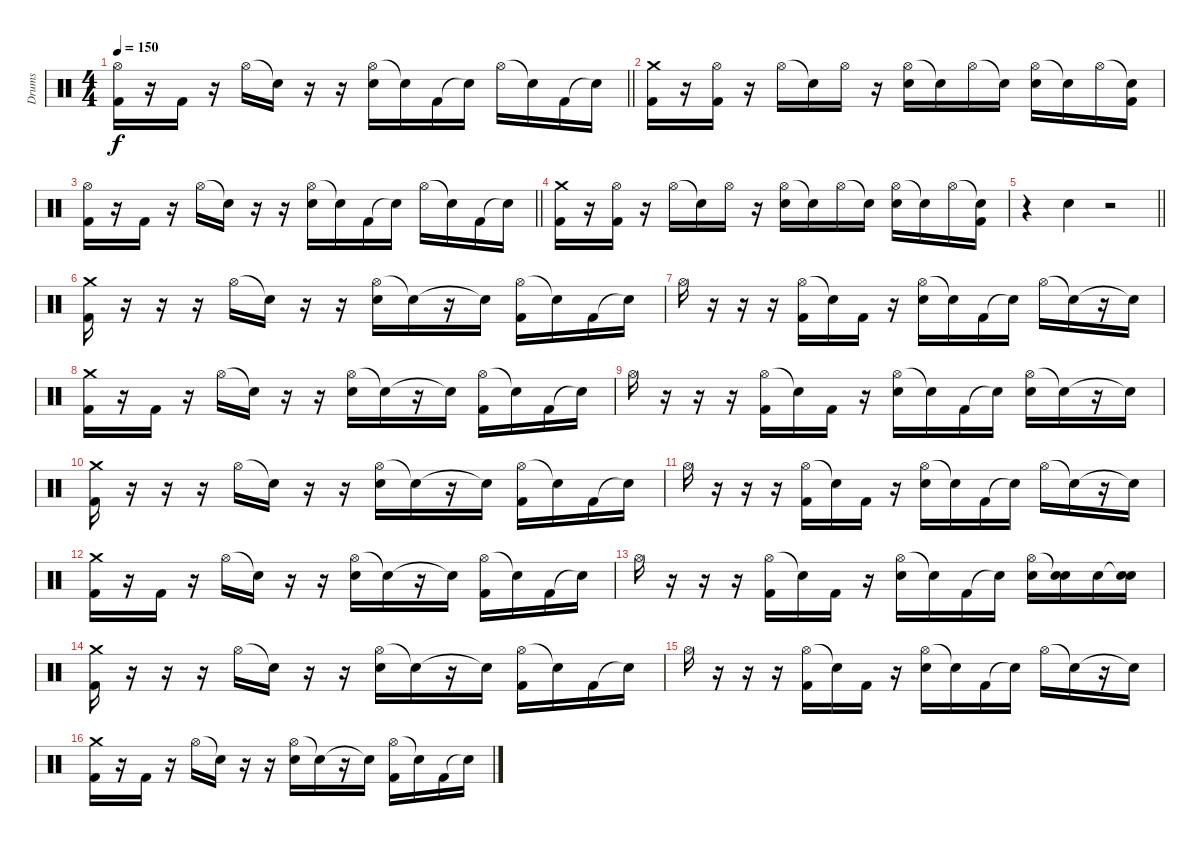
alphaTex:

\track ("Drums" "Drums") {instrument percussion}
\staff {score}
\articulation defaults
\ts (4 4)
\tempo 150
\clef neutral
\barLineRight lightlight
\ks c
("Hi-Hat (open)" "Kick (hit) 2").16{dy f} r.16 "Kick (hit) 2".16 r.16 "Hi-Hat (open)".16 "Snare (hit)"{t}.16 r.16 r.16 ("Hi-Hat (open)" "Snare (hit) 2").16 "Snare (hit)"{t}.16 "Kick (hit) 2".16 "Snare (hit)"{t}.16 "Hi-Hat (open)".16 "Snare (hit)"{t}.16 "Kick (hit) 2".16 "Snare (hit)"{t}.16 |
("Crash medium (hit)" "Kick (hit) 2").16 r.16 ("Hi-Hat (open)" "Kick (hit) 2").16 r.16 "Hi-Hat (open)".16 "Snare (hit)"{t}.16 "Hi-Hat (open)".16 r.16 ("Hi-Hat (open)" "Snare (hit) 2").16 "Snare (hit)"{t}.16 "Hi-Hat (open)".16 "Snare (hit)"{t}.16 ("Hi-Hat (open)" "Snare (hit) 2").16 "Snare (hit)"{t}.16 "Hi-Hat (open)".16 ("Snare (hit)"{t} "Kick (hit) 2").16 |
\barLineRight lightlight
("Hi-Hat (open)" "Kick (hit) 2").16 r.16 "Kick (hit) 2".16 r.16 "Hi-Hat (open)".16 "Snare (hit)"{t}.16 r.16 r.16 ("Hi-Hat (open)" "Snare (hit) 2").16 "Snare (hit)"{t}.16 "Kick (hit) 2".16 "Snare (hit)"{t}.16 "Hi-Hat (open)".16 "Snare (hit)"{t}.16 "Kick (hit) 2".16 "Snare (hit)"{t}.16 |
("Crash medium (hit)" "Kick (hit) 2").16 r.16 ("Hi-Hat (open)" "Kick (hit) 2").16 r.16 "Hi-Hat (open)".16 "Snare (hit)"{t}.16 "Hi-Hat (open)".16 r.16 ("Hi-Hat (open)" "Snare (hit) 2").16 "Snare (hit)"{t}.16 "Hi-Hat (open)".16 "Snare (hit)"{t}.16 ("Hi-Hat (open)" "Snare (hit) 2").16 "Snare (hit)"{t}.16 "Hi-Hat (open)".16 ("Snare (hit)"{t} "Kick (hit) 2").16 |
\barLineRight lightlight
r.4 "Snare (hit) 2".4 r.2 |
("Crash medium (hit)" "Kick (hit) 2").16 r.16 r.16 r.16 "Hi-Hat (open)".16 "Snare (hit)"{t}.16 r.16 r.16 ("Hi-Hat (open)" "Snare (hit) 2").16 "Snare (hit)"{t}.16 r.16 "Snare (hit)"{t}.16 ("Hi-Hat (open)" "Kick (hit) 2").16 "Snare (hit)"{t}.16 "Kick (hit) 2".16 "Snare (hit)"{t}.16 |
"Hi-Hat (open)".16 r.16 r.16 r.16 ("Hi-Hat (open)" "Kick (hit) 2").16 "Snare (hit)"{t}.16 "Kick (hit) 2".16 r.16 ("Hi-Hat (open)" "Snare (hit) 2").16 "Snare (hit)"{t}.16 "Kick (hit) 2".16 "Snare (hit)"{t}.16 "Hi-Hat (open)".16 "Snare (hit)"{t}.16 r.16 "Snare (hit)"{t}.16 |
("Crash medium (hit)" "Kick (hit) 2").16 r.16 "Kick (hit) 2".16 r.16 "Hi-Hat (open)".16 "Snare (hit)"{t}.16 r.16 r.16 ("Hi-Hat (open)" "Snare (hit) 2").16 "Snare (hit)"{t}.16 r.16 "Snare (hit)"{t}.16 ("Hi-Hat (open)" "Kick (hit) 2").16 "Snare (hit)"{t}.16 "Kick (hit) 2".16 "Snare (hit)"{t}.16 |
"Hi-Hat (open)".16 r.16 r.16 r.16 ("Hi-Hat (open)" "Kick (hit) 2").16 "Snare (hit)"{t}.16 "Kick (hit) 2".16 r.16 ("Hi-Hat (open)" "Snare (hit) 2").16 "Snare (hit)"{t}.16 "Kick (hit) 2".16 "Snare (hit)"{t}.16 ("Hi-Hat (open)" "Snare (hit) 2").16 "Snare (hit)"{t}.16 r.16 "Snare (hit)"{t}.16 |
("Crash medium (hit)" "Kick (hit) 2").16 r.16 r.16 r.16 "Hi-Hat (open)".16 "Snare (hit)"{t}.16 r.16 r.16 ("Hi-Hat (open)" "Snare (hit) 2").16 "Snare (hit)"{t}.16 r.16 "Snare (hit)"{t}.16 ("Hi-Hat (open)" "Kick (hit) 2").16 "Snare (hit)"{t}.16 "Kick (hit) 2".16 "Snare (hit)"{t}.16 |
"Hi-Hat (open)".16 r.16 r.16 r.16 ("Hi-Hat (open)" "Kick (hit) 2").16 "Snare (hit)"{t}.16 "Kick (hit) 2".16 r.16 ("Hi-Hat (open)" "Snare (hit) 2").16 "Snare (hit)"{t}.16 "Kick (hit) 2".16 "Snare (hit)"{t}.16 "Hi-Hat (open)".16 "Snare (hit)"{t}.16 r.16 "Snare (hit)"{t}.16 |
("Crash medium (hit)" "Kick (hit) 2").16 r.16 "Kick (hit) 2".16 r.16 "Hi-Hat (open)".16 "Snare (hit)"{t}.16 r.16 r.16 ("Hi-Hat (open)" "Snare (hit) 2").16 "Snare (hit)"{t}.16 r.16 "Snare (hit)"{t}.16 ("Hi-Hat (open)" "Kick (hit) 2").16 "Snare (hit)"{t}.16 "Kick (hit) 2".16 "Snare (hit)"{t}.16 |
"Hi-Hat (open)".16 r.16 r.16 r.16 ("Hi-Hat (open)" "Kick (hit) 2").16 "Snare (hit)"{t}.16 "Kick (hit) 2".16 r.16 ("Hi-Hat (open)" "Snare (hit) 2").16 "Snare (hit)"{t}.16 "Kick (hit) 2".16 "Snare (hit)"{t}.16 ("Hi-Hat (open)" "Snare (hit) 2").16 ("Snare (hit)"{t} "Snare (hit) 2").16 "Snare (hit) 2".16 ("Snare (hit)"{t} "Snare (hit) 2").16 |
("Crash medium (hit)" "Kick (hit) 2").16 r.16 r.16 r.16 "Hi-Hat (open)".16 "Snare (hit)"{t}.16 r.16 r.16 ("Hi-Hat (open)" "Snare (hit) 2").16 "Snare (hit)"{t}.16 r.16 "Snare (hit)"{t}.16 ("Hi-Hat (open)" "Kick (hit) 2").16 "Snare (hit)"{t}.16 "Kick (hit) 2".16 "Snare (hit)"{t}.16 |
"Hi-Hat (open)".16 r.16 r.16 r.16 ("Hi-Hat (open)" "Kick (hit) 2").16 "Snare (hit)"{t}.16 "Kick (hit) 2".16 r.16 ("Hi-Hat (open)" "Snare (hit) 2").16 "Snare (hit)"{t}.16 "Kick (hit) 2".16 "Snare (hit)"{t}.16 "Hi-Hat (open)".16 "Snare (hit)"{t}.16 r.16 "Snare (hit)"{t}.16 |
("Crash medium (hit)" "Kick (hit) 2").16 r.16 "Kick (hit) 2".16 r.16 "Hi-Hat (open)".16 "Snare (hit)"{t}.16 r.16 r.16 ("Hi-Hat (open)" "Snare (hit) 2").16 "Snare (hit)"{t}.16 r.16 "Snare (hit)"{t}.16 ("Hi-Hat (open)" "Kick (hit) 2").16 "Snare (hit)"{t}.16 "Kick (hit) 2".16 "Snare (hit)"{t}.16
